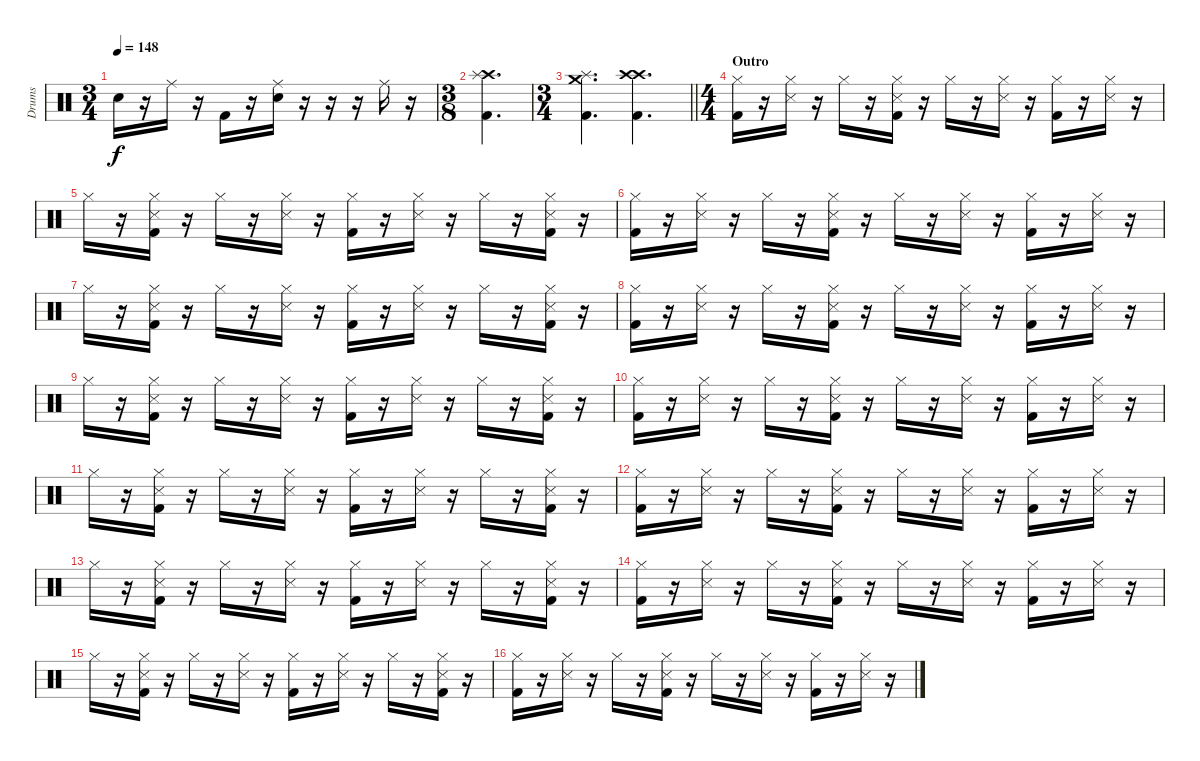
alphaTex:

\track ("Drums" "Drums") {instrument percussion}
\staff {score}
\articulation defaults
\ts (3 4)
\tempo 148
\clef neutral
\ks c "Electric Snare (hit)".16{dy f}
r.16 "Ride (middle)".16 r.16 "Kick (hit) 2".16 r.16 ("Ride (middle)" "Electric Snare (hit)").16 r.16 r.16 r.16 "Ride (middle)".16 r.16 |
\ts (3 8)
("Crash high (hit)" "Splash (hit)" "Kick (hit) 2").4{d} |
\ts (3 4)
\barLineRight lightlight
("Crash medium (hit)" "Splash (hit)" "Kick (hit) 2").4{d} ("Crash high (hit)" "Crash high (hit)" "Kick (hit) 2").4{d} |
\ts (4 4)
\section ("" "Outro")
("Hi-Hat (closed)" "Kick (hit) 2").16 r.16 ("Hi-Hat (closed)" "Snare (side stick) 3").16 r.16 "Hi-Hat (closed)".16 r.16 ("Hi-Hat (closed)" "Snare (side stick) 3" "Kick (hit) 2").16 r.16 "Hi-Hat (closed)".16 r.16 ("Hi-Hat (closed)" "Snare (side stick) 3").16 r.16 ("Hi-Hat (closed)" "Kick (hit) 2").16 r.16 ("Hi-Hat (closed)" "Snare (side stick) 3").16 r.16 |
"Hi-Hat (closed)".16 r.16 ("Hi-Hat (closed)" "Snare (side stick) 3" "Kick (hit) 2").16 r.16 "Hi-Hat (closed)".16 r.16 ("Hi-Hat (closed)" "Snare (side stick) 3").16 r.16 ("Hi-Hat (closed)" "Kick (hit) 2").16 r.16 ("Hi-Hat (closed)" "Snare (side stick) 3").16 r.16 "Hi-Hat (closed)".16 r.16 ("Hi-Hat (closed)" "Snare (side stick) 3" "Kick (hit) 2").16 r.16 |
("Hi-Hat (closed)" "Kick (hit) 2").16 r.16 ("Hi-Hat (closed)" "Snare (side stick) 3").16 r.16 "Hi-Hat (closed)".16 r.16 ("Hi-Hat (closed)" "Snare (side stick) 3" "Kick (hit) 2").16 r.16 "Hi-Hat (closed)".16 r.16 ("Hi-Hat (closed)" "Snare (side stick) 3").16 r.16 ("Hi-Hat (closed)" "Kick (hit) 2").16 r.16 ("Hi-Hat (closed)" "Snare (side stick) 3").16 r.16 |
"Hi-Hat (closed)".16 r.16 ("Hi-Hat (closed)" "Snare (side stick) 3" "Kick (hit) 2").16 r.16 "Hi-Hat (closed)".16 r.16 ("Hi-Hat (closed)" "Snare (side stick) 3").16 r.16 ("Hi-Hat (closed)" "Kick (hit) 2").16 r.16 ("Hi-Hat (closed)" "Snare (side stick) 3").16 r.16 "Hi-Hat (closed)".16 r.16 ("Hi-Hat (closed)" "Snare (side stick) 3" "Kick (hit) 2").16 r.16 |
("Hi-Hat (closed)" "Kick (hit) 2").16 r.16 ("Hi-Hat (closed)" "Snare (side stick) 3").16 r.16 "Hi-Hat (closed)".16 r.16 ("Hi-Hat (closed)" "Snare (side stick) 3" "Kick (hit) 2").16 r.16 "Hi-Hat (closed)".16 r.16 ("Hi-Hat (closed)" "Snare (side stick) 3").16 r.16 ("Hi-Hat (closed)" "Kick (hit) 2").16 r.16 ("Hi-Hat (closed)" "Snare (side stick) 3").16 r.16 |
"Hi-Hat (closed)".16 r.16 ("Hi-Hat (closed)" "Snare (side stick) 3" "Kick (hit) 2").16 r.16 "Hi-Hat (closed)".16 r.16 ("Hi-Hat (closed)" "Snare (side stick) 3").16 r.16 ("Hi-Hat (closed)" "Kick (hit) 2").16 r.16 ("Hi-Hat (closed)" "Snare (side stick) 3").16 r.16 "Hi-Hat (closed)".16 r.16 ("Hi-Hat (closed)" "Snare (side stick) 3" "Kick (hit) 2").16 r.16 |
("Hi-Hat (closed)" "Kick (hit) 2").16 r.16 ("Hi-Hat (closed)" "Snare (side stick) 3").16 r.16 "Hi-Hat (closed)".16 r.16 ("Hi-Hat (closed)" "Snare (side stick) 3" "Kick (hit) 2").16 r.16 "Hi-Hat (closed)".16 r.16 ("Hi-Hat (closed)" "Snare (side stick) 3").16 r.16 ("Hi-Hat (closed)" "Kick (hit) 2").16 r.16 ("Hi-Hat (closed)" "Snare (side stick) 3").16 r.16 |
"Hi-Hat (closed)".16 r.16 ("Hi-Hat (closed)" "Snare (side stick) 3" "Kick (hit) 2").16 r.16 "Hi-Hat (closed)".16 r.16 ("Hi-Hat (closed)" "Snare (side stick) 3").16 r.16 ("Hi-Hat (closed)" "Kick (hit) 2").16 r.16 ("Hi-Hat (closed)" "Snare (side stick) 3").16 r.16 "Hi-Hat (closed)".16 r.16 ("Hi-Hat (closed)" "Snare (side stick) 3" "Kick (hit) 2").16 r.16 |
("Hi-Hat (closed)" "Kick (hit) 2").16 r.16 ("Hi-Hat (closed)" "Snare (side stick) 3").16 r.16 "Hi-Hat (closed)".16 r.16 ("Hi-Hat (closed)" "Snare (side stick) 3" "Kick (hit) 2").16 r.16 "Hi-Hat (closed)".16 r.16 ("Hi-Hat (closed)" "Snare (side stick) 3").16 r.16 ("Hi-Hat (closed)" "Kick (hit) 2").16 r.16 ("Hi-Hat (closed)" "Snare (side stick) 3").16 r.16 |
"Hi-Hat (closed)".16 r.16 ("Hi-Hat (closed)" "Snare (side stick) 3" "Kick (hit) 2").16 r.16 "Hi-Hat (closed)".16 r.16 ("Hi-Hat (closed)" "Snare (side stick) 3").16 r.16 ("Hi-Hat (closed)" "Kick (hit) 2").16 r.16 ("Hi-Hat (closed)" "Snare (side stick) 3").16 r.16 "Hi-Hat (closed)".16 r.16 ("Hi-Hat (closed)" "Snare (side stick) 3" "Kick (hit) 2").16 r.16 |
("Hi-Hat (closed)" "Kick (hit) 2").16 r.16 ("Hi-Hat (closed)" "Snare (side stick) 3").16 r.16 "Hi-Hat (closed)".16 r.16 ("Hi-Hat (closed)" "Snare (side stick) 3" "Kick (hit) 2").16 r.16 "Hi-Hat (closed)".16 r.16 ("Hi-Hat (closed)" "Snare (side stick) 3").16 r.16 ("Hi-Hat (closed)" "Kick (hit) 2").16 r.16 ("Hi-Hat (closed)" "Snare (side stick) 3").16 r.16 |
"Hi-Hat (closed)".16 r.16 ("Hi-Hat (closed)" "Snare (side stick) 3" "Kick (hit) 2").16 r.16 "Hi-Hat (closed)".16 r.16 ("Hi-Hat (closed)" "Snare (side stick) 3").16 r.16 ("Hi-Hat (closed)" "Kick (hit) 2").16 r.16 ("Hi-Hat (closed)" "Snare (side stick) 3").16 r.16 "Hi-Hat (closed)".16 r.16 ("Hi-Hat (closed)" "Snare (side stick) 3" "Kick (hit) 2").16 r.16 |
("Hi-Hat (closed)" "Kick (hit) 2").16 r.16 ("Hi-Hat (closed)" "Snare (side stick) 3").16 r.16 "Hi-Hat (closed)".16 r.16 ("Hi-Hat (closed)" "Snare (side stick) 3" "Kick (hit) 2").16 r.16 "Hi-Hat (closed)".16 r.16 ("Hi-Hat (closed)" "Snare (side stick) 3").16 r.16 ("Hi-Hat (closed)" "Kick (hit) 2").16 r.16 ("Hi-Hat (closed)" "Snare (side stick) 3").16 r.16
